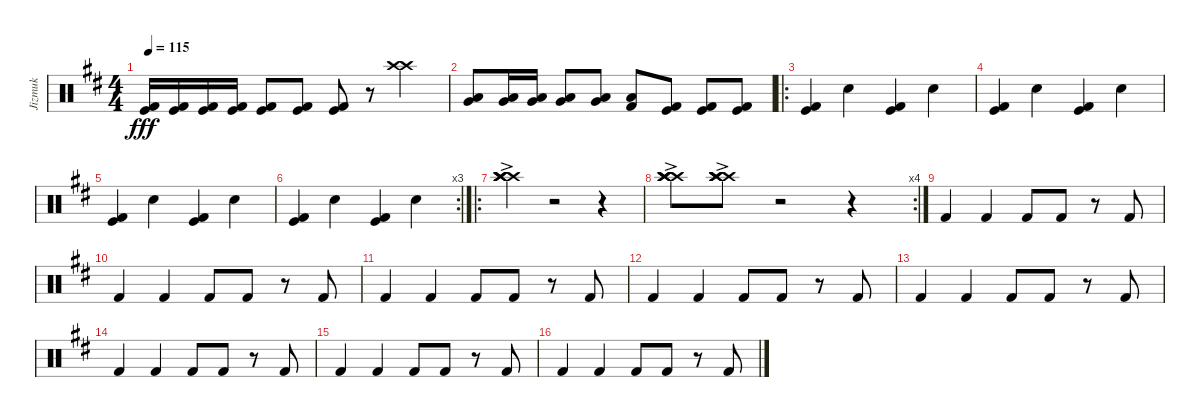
\track ("Jizmuk" "Jizmuk") {instrument percussion}
\staff {score}
\articulation defaults
\ts (4 4)
\tempo 115
\clef neutral
\ks d
("Kick (hit)" "Kick (hit) 2").16{dy fff} ("Kick (hit)" "Kick (hit) 2").16 ("Kick (hit)" "Kick (hit) 2").16 ("Kick (hit)" "Kick (hit) 2").16 ("Kick (hit)" "Kick (hit) 2").8 ("Kick (hit)" "Kick (hit) 2").8 ("Kick (hit)" "Kick (hit) 2").8 r.8 ("Crash high (hit)" "Crash high (hit)").4 |
("Low Tom (hit)" "Very Low Tom (hit)").8 ("Low Tom (hit)" "Very Low Tom (hit)").16 ("Low Tom (hit)" "Very Low Tom (hit)").16 ("Low Tom (hit)" "Very Low Tom (hit)").8 ("Very Low Tom (hit)" "Low Floor Tom (hit)").8 ("Low Floor Tom (hit)" "Kick (hit) 2").8 ("Kick (hit) 2" "Kick (hit)").8 ("Kick (hit) 2" "Kick (hit)").8 ("Kick (hit) 2" "Kick (hit)").8 |
\ro
("Kick (hit) 2" "Kick (hit)").4 "Snare (hit) 2".4 ("Kick (hit) 2" "Kick (hit)").4 "Snare (hit) 2".4 |
("Kick (hit) 2" "Kick (hit)").4 "Snare (hit) 2".4 ("Kick (hit) 2" "Kick (hit)").4 "Snare (hit) 2".4 |
("Kick (hit) 2" "Kick (hit)").4 "Snare (hit) 2".4 ("Kick (hit) 2" "Kick (hit)").4 "Snare (hit) 2".4 |
\rc 3
("Kick (hit) 2" "Kick (hit)").4 "Snare (hit) 2".4 ("Kick (hit) 2" "Kick (hit)").4 "Snare (hit) 2".4 |
\ro
("Crash high (hit)"{ac} "Crash high (hit)"{ac} "Crash high (hit)"{ac} "Crash high (hit)"{ac} "Crash high (hit)"{ac}).4 r.2 r.4 |
\rc 4
("Crash high (hit)"{ac} "Crash high (hit)"{ac} "Crash high (hit)"{ac} "Crash high (hit)"{ac} "Crash high (hit)"{ac}).8 ("Crash high (hit)"{ac} "Crash high (hit)"{ac} "Crash high (hit)"{ac} "Crash high (hit)"{ac} "Crash high (hit)"{ac}).8 r.2 r.4 |
"Kick (hit) 2".4 "Kick (hit) 2".4 "Kick (hit) 2".8 "Kick (hit) 2".8 r.8 "Kick (hit) 2".8 |
"Kick (hit) 2".4 "Kick (hit) 2".4 "Kick (hit) 2".8 "Kick (hit) 2".8 r.8 "Kick (hit) 2".8 |
"Kick (hit) 2".4 "Kick (hit) 2".4 "Kick (hit) 2".8 "Kick (hit) 2".8 r.8 "Kick (hit) 2".8 |
"Kick (hit) 2".4 "Kick (hit) 2".4 "Kick (hit) 2".8 "Kick (hit) 2".8 r.8 "Kick (hit) 2".8 |
"Kick (hit) 2".4 "Kick (hit) 2".4 "Kick (hit) 2".8 "Kick (hit) 2".8 r.8 "Kick (hit) 2".8 |
"Kick (hit) 2".4 "Kick (hit) 2".4 "Kick (hit) 2".8 "Kick (hit) 2".8 r.8 "Kick (hit) 2".8 |
"Kick (hit) 2".4 "Kick (hit) 2".4 "Kick (hit) 2".8 "Kick (hit) 2".8 r.8 "Kick (hit) 2".8 |
"Kick (hit) 2".4 "Kick (hit) 2".4 "Kick (hit) 2".8 "Kick (hit) 2".8 r.8 "Kick (hit) 2".8
